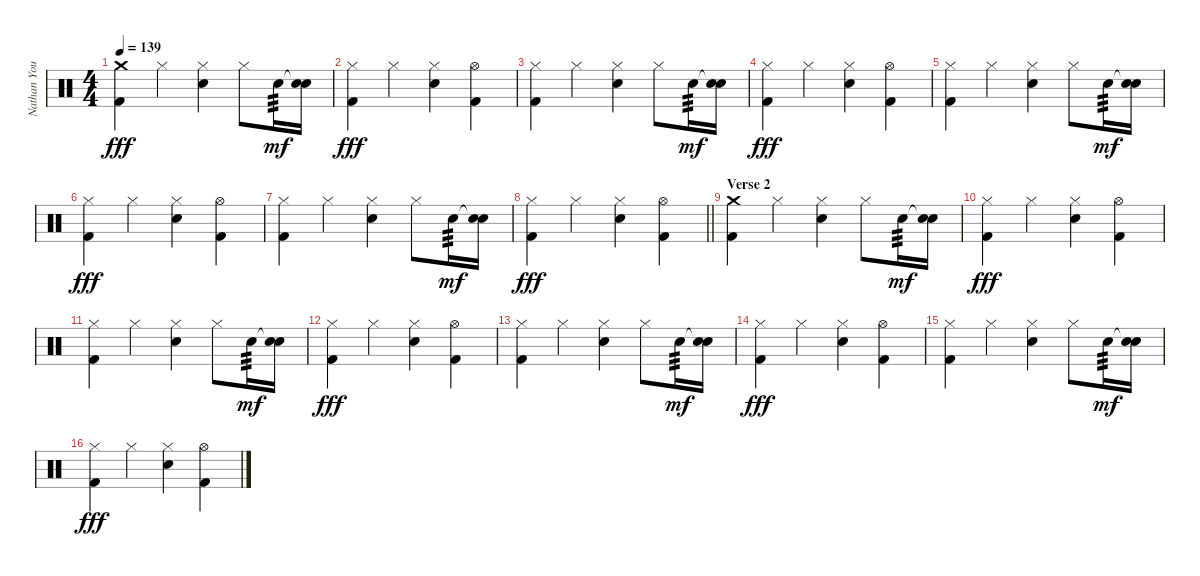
\track ("Nathan Young" "Nathan You") {instrument percussion}
\staff {score}
\articulation defaults
\ts (4 4)
\tempo 139
\clef neutral
\ks c
("Crash medium (hit)" "Kick (hit) 2").4{dy fff} "Hi-Hat (closed)".4 ("Hi-Hat (closed)" "Electric Snare (hit)").4 "Hi-Hat (closed)".8 "Electric Snare (hit)".16{tp 3 dy mf} ("Snare (hit)"{t} "Electric Snare (hit)").16 |
("Hi-Hat (closed)" "Kick (hit) 2").4{dy fff} "Hi-Hat (closed)".4 ("Hi-Hat (closed)" "Electric Snare (hit)").4 ("Hi-Hat (open)" "Kick (hit) 2").4 |
("Hi-Hat (closed)" "Kick (hit) 2").4 "Hi-Hat (closed)".4 ("Hi-Hat (closed)" "Electric Snare (hit)").4 "Hi-Hat (closed)".8 "Electric Snare (hit)".16{tp 3 dy mf} ("Snare (hit)"{t} "Electric Snare (hit)").16 |
("Hi-Hat (closed)" "Kick (hit) 2").4{dy fff} "Hi-Hat (closed)".4 ("Hi-Hat (closed)" "Electric Snare (hit)").4 ("Hi-Hat (open)" "Kick (hit) 2").4 |
("Hi-Hat (closed)" "Kick (hit) 2").4 "Hi-Hat (closed)".4 ("Hi-Hat (closed)" "Electric Snare (hit)").4 "Hi-Hat (closed)".8 "Electric Snare (hit)".16{tp 3 dy mf} ("Snare (hit)"{t} "Electric Snare (hit)").16 |
("Hi-Hat (closed)" "Kick (hit) 2").4{dy fff} "Hi-Hat (closed)".4 ("Hi-Hat (closed)" "Electric Snare (hit)").4 ("Hi-Hat (open)" "Kick (hit) 2").4 |
("Hi-Hat (closed)" "Kick (hit) 2").4 "Hi-Hat (closed)".4 ("Hi-Hat (closed)" "Electric Snare (hit)").4 "Hi-Hat (closed)".8 "Electric Snare (hit)".16{tp 3 dy mf} ("Snare (hit)"{t} "Electric Snare (hit)").16 |
\barLineRight lightlight
("Hi-Hat (closed)" "Kick (hit) 2").4{dy fff} "Hi-Hat (closed)".4 ("Hi-Hat (closed)" "Electric Snare (hit)").4 ("Hi-Hat (open)" "Kick (hit) 2").4 |
\section ("" "Verse 2")
("Crash medium (hit)" "Kick (hit) 2").4 "Hi-Hat (closed)".4 ("Hi-Hat (closed)" "Electric Snare (hit)").4 "Hi-Hat (closed)".8 "Electric Snare (hit)".16{tp 3 dy mf} ("Snare (hit)"{t} "Electric Snare (hit)").16 |
("Hi-Hat (closed)" "Kick (hit) 2").4{dy fff} "Hi-Hat (closed)".4 ("Hi-Hat (closed)" "Electric Snare (hit)").4 ("Hi-Hat (open)" "Kick (hit) 2").4 |
("Hi-Hat (closed)" "Kick (hit) 2").4 "Hi-Hat (closed)".4 ("Hi-Hat (closed)" "Electric Snare (hit)").4 "Hi-Hat (closed)".8 "Electric Snare (hit)".16{tp 3 dy mf} ("Snare (hit)"{t} "Electric Snare (hit)").16 |
("Hi-Hat (closed)" "Kick (hit) 2").4{dy fff} "Hi-Hat (closed)".4 ("Hi-Hat (closed)" "Electric Snare (hit)").4 ("Hi-Hat (open)" "Kick (hit) 2").4 |
("Hi-Hat (closed)" "Kick (hit) 2").4 "Hi-Hat (closed)".4 ("Hi-Hat (closed)" "Electric Snare (hit)").4 "Hi-Hat (closed)".8 "Electric Snare (hit)".16{tp 3 dy mf} ("Snare (hit)"{t} "Electric Snare (hit)").16 |
("Hi-Hat (closed)" "Kick (hit) 2").4{dy fff} "Hi-Hat (closed)".4 ("Hi-Hat (closed)" "Electric Snare (hit)").4 ("Hi-Hat (open)" "Kick (hit) 2").4 |
("Hi-Hat (closed)" "Kick (hit) 2").4 "Hi-Hat (closed)".4 ("Hi-Hat (closed)" "Electric Snare (hit)").4 "Hi-Hat (closed)".8 "Electric Snare (hit)".16{tp 3 dy mf} ("Snare (hit)"{t} "Electric Snare (hit)").16 |
("Hi-Hat (closed)" "Kick (hit) 2").4{dy fff} "Hi-Hat (closed)".4 ("Hi-Hat (closed)" "Electric Snare (hit)").4 ("Hi-Hat (open)" "Kick (hit) 2").4
